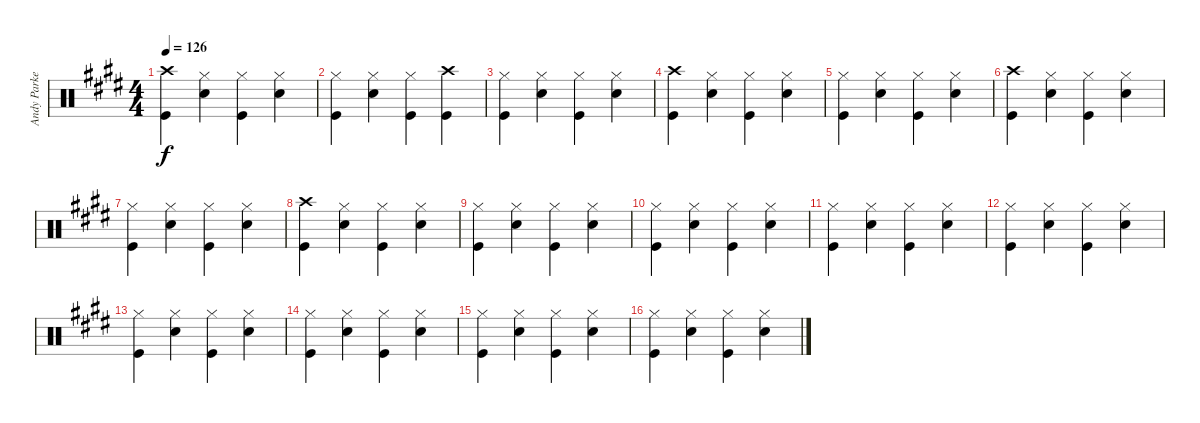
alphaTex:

\track ("Andy Parker Drums" "Andy Parke") {instrument percussion}
\staff {score}
\articulation defaults
\ts (4 4)
\tempo 126
\clef neutral
\ks e
("Crash high (hit)" "Kick (hit)").4{dy f} ("Hi-Hat (closed)" "Snare (hit) 2").4 ("Hi-Hat (closed)" "Kick (hit)").4 ("Hi-Hat (closed)" "Snare (hit) 2").4 |
("Hi-Hat (closed)" "Kick (hit)").4 ("Hi-Hat (closed)" "Snare (hit) 2").4 ("Hi-Hat (closed)" "Kick (hit)").4 ("Crash high (hit)" "Kick (hit)").4 |
("Hi-Hat (closed)" "Kick (hit)").4 ("Hi-Hat (closed)" "Snare (hit) 2").4 ("Hi-Hat (closed)" "Kick (hit)").4 ("Hi-Hat (closed)" "Snare (hit) 2").4 |
("Crash high (hit)" "Kick (hit)").4 ("Hi-Hat (closed)" "Snare (hit) 2").4 ("Hi-Hat (closed)" "Kick (hit)").4 ("Hi-Hat (closed)" "Snare (hit) 2").4 |
("Hi-Hat (closed)" "Kick (hit)").4 ("Hi-Hat (closed)" "Snare (hit) 2").4 ("Hi-Hat (closed)" "Kick (hit)").4 ("Hi-Hat (closed)" "Snare (hit) 2").4 |
("Crash high (hit)" "Kick (hit)").4 ("Hi-Hat (closed)" "Snare (hit) 2").4 ("Hi-Hat (closed)" "Kick (hit)").4 ("Hi-Hat (closed)" "Snare (hit) 2").4 |
("Hi-Hat (closed)" "Kick (hit)").4 ("Hi-Hat (closed)" "Snare (hit) 2").4 ("Hi-Hat (closed)" "Kick (hit)").4 ("Hi-Hat (closed)" "Snare (hit) 2").4 |
("Crash high (hit)" "Kick (hit)").4 ("Hi-Hat (closed)" "Snare (hit) 2").4 ("Hi-Hat (closed)" "Kick (hit)").4 ("Hi-Hat (closed)" "Snare (hit) 2").4 |
("Hi-Hat (closed)" "Kick (hit)").4 ("Hi-Hat (closed)" "Snare (hit) 2").4 ("Hi-Hat (closed)" "Kick (hit)").4 ("Hi-Hat (closed)" "Snare (hit) 2").4 |
("Hi-Hat (closed)" "Kick (hit)").4 ("Hi-Hat (closed)" "Snare (hit) 2").4 ("Hi-Hat (closed)" "Kick (hit)").4 ("Hi-Hat (closed)" "Snare (hit) 2").4 |
("Hi-Hat (closed)" "Kick (hit)").4 ("Hi-Hat (closed)" "Snare (hit) 2").4 ("Hi-Hat (closed)" "Kick (hit)").4 ("Hi-Hat (closed)" "Snare (hit) 2").4 |
("Hi-Hat (closed)" "Kick (hit)").4 ("Hi-Hat (closed)" "Snare (hit) 2").4 ("Hi-Hat (closed)" "Kick (hit)").4 ("Hi-Hat (closed)" "Snare (hit) 2").4 |
("Hi-Hat (closed)" "Kick (hit)").4 ("Hi-Hat (closed)" "Snare (hit) 2").4 ("Hi-Hat (closed)" "Kick (hit)").4 ("Hi-Hat (closed)" "Snare (hit) 2").4 |
("Hi-Hat (closed)" "Kick (hit)").4 ("Hi-Hat (closed)" "Snare (hit) 2").4 ("Hi-Hat (closed)" "Kick (hit)").4 ("Hi-Hat (closed)" "Snare (hit) 2").4 |
("Hi-Hat (closed)" "Kick (hit)").4 ("Hi-Hat (closed)" "Snare (hit) 2").4 ("Hi-Hat (closed)" "Kick (hit)").4 ("Hi-Hat (closed)" "Snare (hit) 2").4 |
("Hi-Hat (closed)" "Kick (hit)").4 ("Hi-Hat (closed)" "Snare (hit) 2").4 ("Hi-Hat (closed)" "Kick (hit)").4 ("Hi-Hat (closed)" "Snare (hit) 2").4
